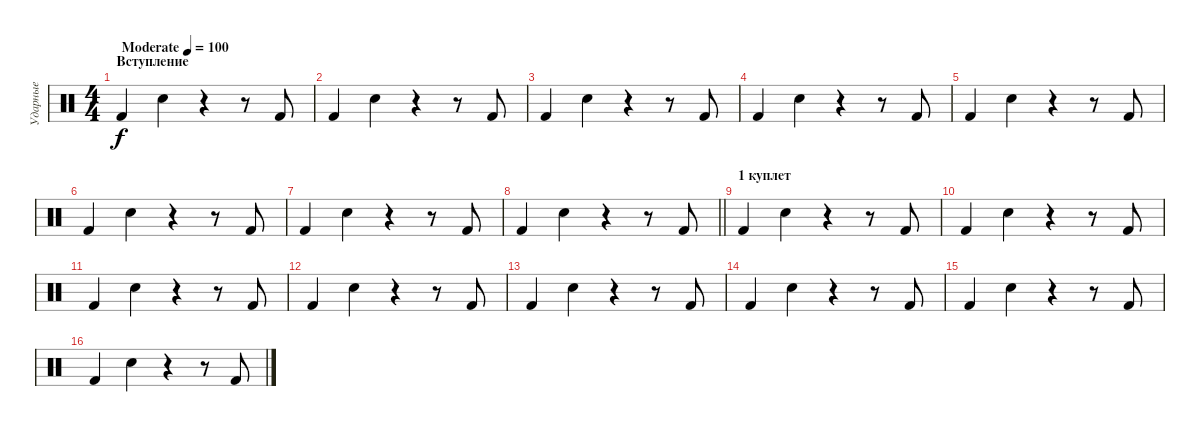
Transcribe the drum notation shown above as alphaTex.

\track ("Ударные" "Ударные") {instrument percussion}
\staff {score}
\articulation defaults
\ts (4 4)
\section ("" "Вступление")
\tempo (100 "Moderate")
\clef neutral
\ks c "Kick (hit) 2".4{dy f} "Hand Clap (hit)".4
r.4 r.8 "Kick (hit) 2".8 |
"Kick (hit) 2".4 "Hand Clap (hit)".4 r.4 r.8 "Kick (hit) 2".8 |
"Kick (hit) 2".4 "Hand Clap (hit)".4 r.4 r.8 "Kick (hit) 2".8 |
"Kick (hit) 2".4 "Hand Clap (hit)".4 r.4 r.8 "Kick (hit) 2".8 |
"Kick (hit) 2".4 "Hand Clap (hit)".4 r.4 r.8 "Kick (hit) 2".8 |
"Kick (hit) 2".4 "Hand Clap (hit)".4 r.4 r.8 "Kick (hit) 2".8 |
"Kick (hit) 2".4 "Hand Clap (hit)".4 r.4 r.8 "Kick (hit) 2".8 |
\barLineRight lightlight "Kick (hit) 2".4 "Hand Clap (hit)".4
r.4 r.8 "Kick (hit) 2".8 |
\section ("" "1 куплет")
"Kick (hit) 2".4 "Hand Clap (hit)".4 r.4 r.8 "Kick (hit) 2".8 |
"Kick (hit) 2".4 "Hand Clap (hit)".4 r.4 r.8 "Kick (hit) 2".8 |
"Kick (hit) 2".4 "Hand Clap (hit)".4 r.4 r.8 "Kick (hit) 2".8 |
"Kick (hit) 2".4 "Hand Clap (hit)".4 r.4 r.8 "Kick (hit) 2".8 |
"Kick (hit) 2".4 "Hand Clap (hit)".4 r.4 r.8 "Kick (hit) 2".8 |
"Kick (hit) 2".4 "Hand Clap (hit)".4 r.4 r.8 "Kick (hit) 2".8 |
"Kick (hit) 2".4 "Hand Clap (hit)".4 r.4 r.8 "Kick (hit) 2".8 |
"Kick (hit) 2".4 "Hand Clap (hit)".4 r.4 r.8 "Kick (hit) 2".8
